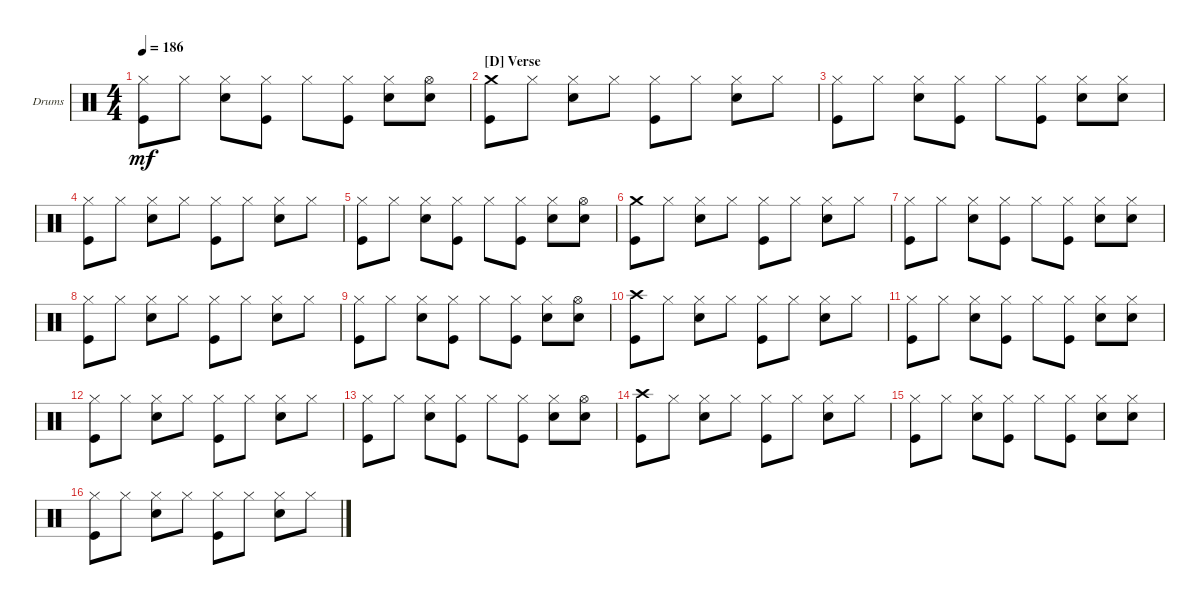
\bracketExtendMode groupsimilarinstruments
\firstSystemTrackNameOrientation horizontal
\otherSystemsTrackNameOrientation horizontal
\track ("Drumkit" "Drums") {instrument percussion}
\staff {score}
\articulation defaults
\ts (4 4)
\tempo 186
\clef neutral
\ks c
("Hi-Hat (closed)" "Kick (hit)").8{dy mf} "Hi-Hat (closed)".8 ("Hi-Hat (closed)" "Snare (hit) 2").8 ("Hi-Hat (closed)" "Kick (hit)").8 "Hi-Hat (closed)".8 ("Hi-Hat (closed)" "Kick (hit)").8 ("Hi-Hat (closed)" "Snare (hit) 2").8 ("Hi-Hat (open)" "Snare (hit) 2").8 |
\section ("D" "Verse")
("Crash medium (hit)" "Kick (hit)").8 "Hi-Hat (closed)".8 ("Hi-Hat (closed)" "Snare (hit) 2").8 "Hi-Hat (closed)".8 ("Hi-Hat (closed)" "Kick (hit)").8 "Hi-Hat (closed)".8 ("Hi-Hat (closed)" "Snare (hit) 2").8 "Hi-Hat (closed)".8 |
("Hi-Hat (closed)" "Kick (hit)").8 "Hi-Hat (closed)".8 ("Hi-Hat (closed)" "Snare (hit) 2").8 ("Hi-Hat (closed)" "Kick (hit)").8 "Hi-Hat (closed)".8 ("Hi-Hat (closed)" "Kick (hit)").8 ("Hi-Hat (closed)" "Snare (hit) 2").8 ("Hi-Hat (closed)" "Snare (hit) 2").8 |
("Hi-Hat (closed)" "Kick (hit)").8 "Hi-Hat (closed)".8 ("Hi-Hat (closed)" "Snare (hit) 2").8 "Hi-Hat (closed)".8 ("Hi-Hat (closed)" "Kick (hit)").8 "Hi-Hat (closed)".8 ("Hi-Hat (closed)" "Snare (hit) 2").8 "Hi-Hat (closed)".8 |
("Hi-Hat (closed)" "Kick (hit)").8 "Hi-Hat (closed)".8 ("Hi-Hat (closed)" "Snare (hit) 2").8 ("Hi-Hat (closed)" "Kick (hit)").8 "Hi-Hat (closed)".8 ("Hi-Hat (closed)" "Kick (hit)").8 ("Hi-Hat (closed)" "Snare (hit) 2").8 ("Hi-Hat (open)" "Snare (hit) 2").8 |
("Crash medium (hit)" "Kick (hit)").8 "Hi-Hat (closed)".8 ("Hi-Hat (closed)" "Snare (hit) 2").8 "Hi-Hat (closed)".8 ("Hi-Hat (closed)" "Kick (hit)").8 "Hi-Hat (closed)".8 ("Hi-Hat (closed)" "Snare (hit) 2").8 "Hi-Hat (closed)".8 |
("Hi-Hat (closed)" "Kick (hit)").8 "Hi-Hat (closed)".8 ("Hi-Hat (closed)" "Snare (hit) 2").8 ("Hi-Hat (closed)" "Kick (hit)").8 "Hi-Hat (closed)".8 ("Hi-Hat (closed)" "Kick (hit)").8 ("Hi-Hat (closed)" "Snare (hit) 2").8 ("Hi-Hat (closed)" "Snare (hit) 2").8 |
("Hi-Hat (closed)" "Kick (hit)").8 "Hi-Hat (closed)".8 ("Hi-Hat (closed)" "Snare (hit) 2").8 "Hi-Hat (closed)".8 ("Hi-Hat (closed)" "Kick (hit)").8 "Hi-Hat (closed)".8 ("Hi-Hat (closed)" "Snare (hit) 2").8 "Hi-Hat (closed)".8 |
("Hi-Hat (closed)" "Kick (hit)").8 "Hi-Hat (closed)".8 ("Hi-Hat (closed)" "Snare (hit) 2").8 ("Hi-Hat (closed)" "Kick (hit)").8 "Hi-Hat (closed)".8 ("Hi-Hat (closed)" "Kick (hit)").8 ("Hi-Hat (closed)" "Snare (hit) 2").8 ("Hi-Hat (open)" "Snare (hit) 2").8 |
("Crash high (hit)" "Kick (hit)").8 "Hi-Hat (closed)".8 ("Hi-Hat (closed)" "Snare (hit) 2").8 "Hi-Hat (closed)".8 ("Hi-Hat (closed)" "Kick (hit)").8 "Hi-Hat (closed)".8 ("Hi-Hat (closed)" "Snare (hit) 2").8 "Hi-Hat (closed)".8 |
("Hi-Hat (closed)" "Kick (hit)").8 "Hi-Hat (closed)".8 ("Hi-Hat (closed)" "Snare (hit) 2").8 ("Hi-Hat (closed)" "Kick (hit)").8 "Hi-Hat (closed)".8 ("Hi-Hat (closed)" "Kick (hit)").8 ("Hi-Hat (closed)" "Snare (hit) 2").8 ("Hi-Hat (closed)" "Snare (hit) 2").8 |
("Hi-Hat (closed)" "Kick (hit)").8 "Hi-Hat (closed)".8 ("Hi-Hat (closed)" "Snare (hit) 2").8 "Hi-Hat (closed)".8 ("Hi-Hat (closed)" "Kick (hit)").8 "Hi-Hat (closed)".8 ("Hi-Hat (closed)" "Snare (hit) 2").8 "Hi-Hat (closed)".8 |
("Hi-Hat (closed)" "Kick (hit)").8 "Hi-Hat (closed)".8 ("Hi-Hat (closed)" "Snare (hit) 2").8 ("Hi-Hat (closed)" "Kick (hit)").8 "Hi-Hat (closed)".8 ("Hi-Hat (closed)" "Kick (hit)").8 ("Hi-Hat (closed)" "Snare (hit) 2").8 ("Hi-Hat (open)" "Snare (hit) 2").8 |
("Crash high (hit)" "Kick (hit)").8 "Hi-Hat (closed)".8 ("Hi-Hat (closed)" "Snare (hit) 2").8 "Hi-Hat (closed)".8 ("Hi-Hat (closed)" "Kick (hit)").8 "Hi-Hat (closed)".8 ("Hi-Hat (closed)" "Snare (hit) 2").8 "Hi-Hat (closed)".8 |
("Hi-Hat (closed)" "Kick (hit)").8 "Hi-Hat (closed)".8 ("Hi-Hat (closed)" "Snare (hit) 2").8 ("Hi-Hat (closed)" "Kick (hit)").8 "Hi-Hat (closed)".8 ("Hi-Hat (closed)" "Kick (hit)").8 ("Hi-Hat (closed)" "Snare (hit) 2").8 ("Hi-Hat (closed)" "Snare (hit) 2").8 |
("Hi-Hat (closed)" "Kick (hit)").8 "Hi-Hat (closed)".8 ("Hi-Hat (closed)" "Snare (hit) 2").8 "Hi-Hat (closed)".8 ("Hi-Hat (closed)" "Kick (hit)").8 "Hi-Hat (closed)".8 ("Hi-Hat (closed)" "Snare (hit) 2").8 "Hi-Hat (closed)".8
